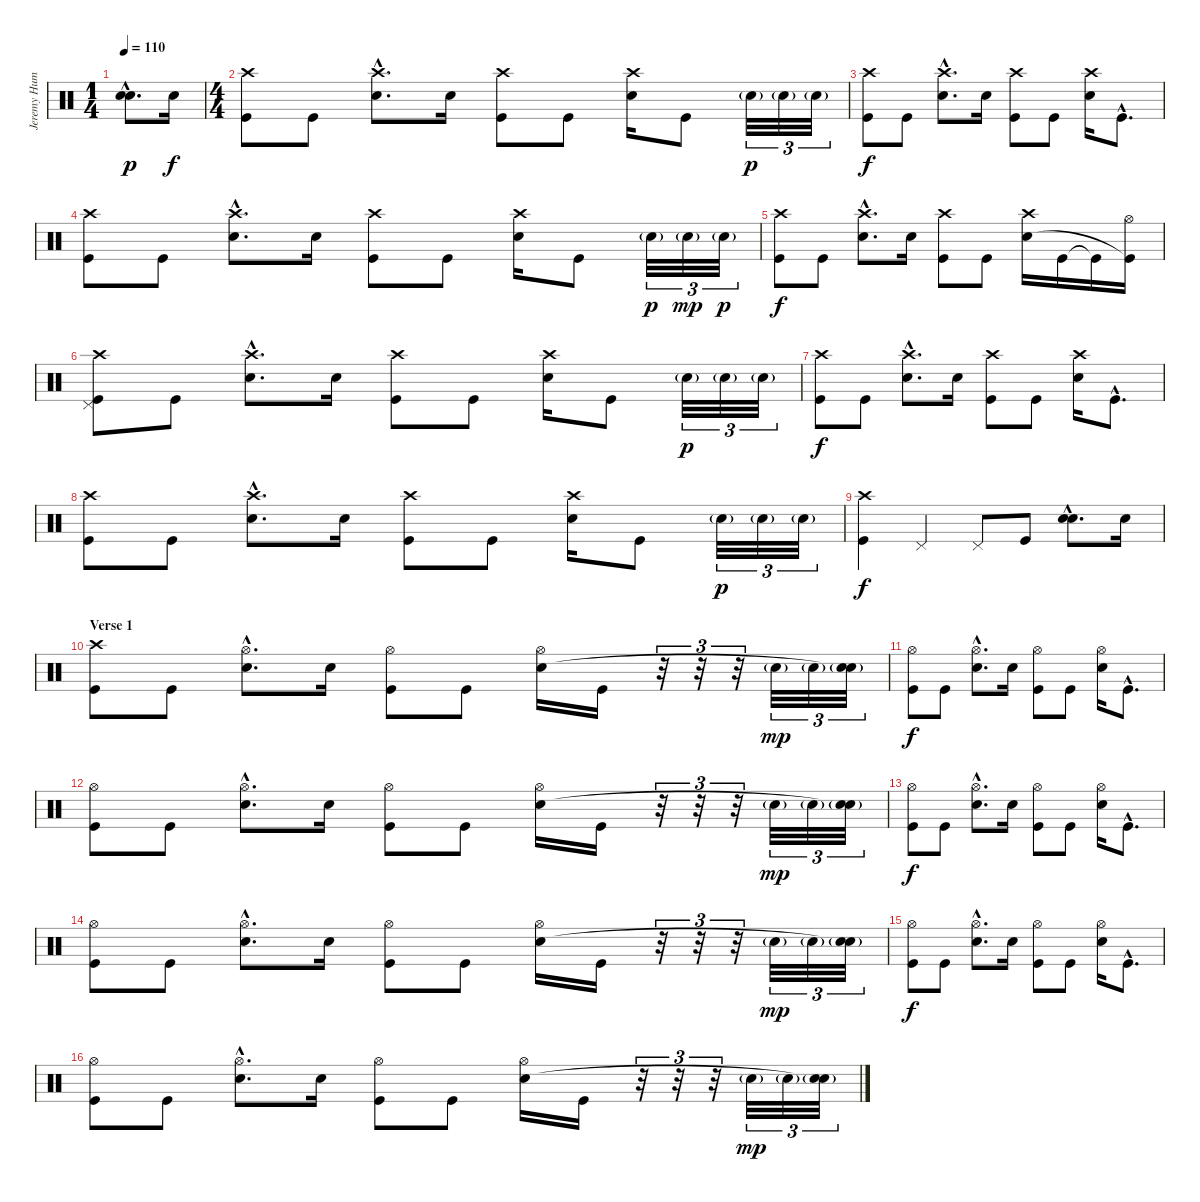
\track ("Jeremy Hummel" "Jeremy Hum") {instrument percussion}
\staff {score}
\articulation defaults
\ts (1 4)
\tempo 110
\clef neutral
\ks c
("Snare (hit) 2"{hac} "Electric Snare (hit)"{hac}).8{d dy p} "Electric Snare (hit)".16{dy f} |
\ts (4 4)
("Crash high (hit)" "Kick (hit)").8 "Kick (hit)".8 ("Crash high (hit)"{hac} "Electric Snare (hit)"{hac}).8{d} "Electric Snare (hit)".16 ("Crash high (hit)" "Kick (hit)").8 "Kick (hit)".8 ("Crash high (hit)" "Electric Snare (hit)").16 "Kick (hit)".8 "Electric Snare (hit)"{g}.32{tu (3 2) dy p} "Electric Snare (hit)"{g}.32{tu (3 2)} "Electric Snare (hit)"{g}.32{tu (3 2)} |
("Crash high (hit)" "Kick (hit)").8{dy f} "Kick (hit)".8 ("Crash high (hit)"{hac} "Electric Snare (hit)"{hac}).8{d} "Electric Snare (hit)".16 ("Crash high (hit)" "Kick (hit)").8 "Kick (hit)".8 ("Crash high (hit)" "Electric Snare (hit)").16 "Kick (hit)"{hac}.8{d} |
("Crash high (hit)" "Kick (hit)").8 "Kick (hit)".8 ("Crash high (hit)"{hac} "Electric Snare (hit)"{hac}).8{d} "Electric Snare (hit)".16 ("Crash high (hit)" "Kick (hit)").8 "Kick (hit)".8 ("Crash high (hit)" "Electric Snare (hit)").16 "Kick (hit)".8 "Electric Snare (hit)"{g}.32{tu (3 2) dy p} "Electric Snare (hit)"{g}.32{tu (3 2) dy mp} "Electric Snare (hit)"{g}.32{tu (3 2) dy p} |
("Crash high (hit)" "Kick (hit)").8{dy f} "Kick (hit)".8 ("Crash high (hit)"{hac} "Electric Snare (hit)"{hac}).8{d} "Electric Snare (hit)".16 ("Crash high (hit)" "Kick (hit)").8 "Kick (hit)".8 ("Crash high (hit)" "Electric Snare (hit)").16 "Kick (hit)".16 "Kick (hit)"{t}.16 ("Hi-Hat (open)" "Kick (hit)"{t}).16 |
("Crash high (hit)" "Pedal Hi-Hat (hit)" "Kick (hit)").8 "Kick (hit)".8 ("Crash high (hit)"{hac} "Electric Snare (hit)"{hac}).8{d} "Electric Snare (hit)".16 ("Crash high (hit)" "Kick (hit)").8 "Kick (hit)".8 ("Crash high (hit)" "Electric Snare (hit)").16 "Kick (hit)".8 "Electric Snare (hit)"{g}.32{tu (3 2) dy p} "Electric Snare (hit)"{g}.32{tu (3 2)} "Electric Snare (hit)"{g}.32{tu (3 2)} |
("Crash high (hit)" "Kick (hit)").8{dy f} "Kick (hit)".8 ("Crash high (hit)"{hac} "Electric Snare (hit)"{hac}).8{d} "Electric Snare (hit)".16 ("Crash high (hit)" "Kick (hit)").8 "Kick (hit)".8 ("Crash high (hit)" "Electric Snare (hit)").16 "Kick (hit)"{hac}.8{d} |
("Crash high (hit)" "Kick (hit)").8 "Kick (hit)".8 ("Crash high (hit)"{hac} "Electric Snare (hit)"{hac}).8{d} "Electric Snare (hit)".16 ("Crash high (hit)" "Kick (hit)").8 "Kick (hit)".8 ("Crash high (hit)" "Electric Snare (hit)").16 "Kick (hit)".8 "Electric Snare (hit)"{g}.32{tu (3 2) dy p} "Electric Snare (hit)"{g}.32{tu (3 2)} "Electric Snare (hit)"{g}.32{tu (3 2)} |
("Crash high (hit)" "Kick (hit)").4{dy f} "Pedal Hi-Hat (hit)".4 "Pedal Hi-Hat (hit)".8 "Kick (hit)".8 ("Snare (hit) 2"{hac} "Electric Snare (hit)"{hac}).8{d} "Electric Snare (hit)".16 |
\section ("" "Verse 1")
("Crash high (hit)" "Kick (hit)").8 "Kick (hit)".8 ("Hi-Hat (open)"{hac} "Electric Snare (hit)"{hac}).8{d} "Electric Snare (hit)".16 ("Hi-Hat (open)" "Kick (hit)").8 "Kick (hit)".8 ("Hi-Hat (open)" "Electric Snare (hit)").16 "Kick (hit)".16 r.32{tu (3 2)} r.32{tu (3 2)} r.32{tu (3 2)} "Electric Snare (hit)"{g}.32{tu (3 2) dy mp} "Electric Snare (hit)"{g}.32{tu (3 2)} ("Electric Snare (hit)"{g} "Snare (hit)"{t}).32{tu (3 2)} |
("Hi-Hat (open)" "Kick (hit)").8{dy f} "Kick (hit)".8 ("Hi-Hat (open)"{hac} "Electric Snare (hit)"{hac}).8{d} "Electric Snare (hit)".16 ("Hi-Hat (open)" "Kick (hit)").8 "Kick (hit)".8 ("Hi-Hat (open)" "Electric Snare (hit)").16 "Kick (hit)"{hac}.8{d} |
("Hi-Hat (open)" "Kick (hit)").8 "Kick (hit)".8 ("Hi-Hat (open)"{hac} "Electric Snare (hit)"{hac}).8{d} "Electric Snare (hit)".16 ("Hi-Hat (open)" "Kick (hit)").8 "Kick (hit)".8 ("Hi-Hat (open)" "Electric Snare (hit)").16 "Kick (hit)".16 r.32{tu (3 2)} r.32{tu (3 2)} r.32{tu (3 2)} "Electric Snare (hit)"{g}.32{tu (3 2) dy mp} "Electric Snare (hit)"{g}.32{tu (3 2)} ("Electric Snare (hit)"{g} "Snare (hit)"{t}).32{tu (3 2)} |
("Hi-Hat (open)" "Kick (hit)").8{dy f} "Kick (hit)".8 ("Hi-Hat (open)"{hac} "Electric Snare (hit)"{hac}).8{d} "Electric Snare (hit)".16 ("Hi-Hat (open)" "Kick (hit)").8 "Kick (hit)".8 ("Hi-Hat (open)" "Electric Snare (hit)").16 "Kick (hit)"{hac}.8{d} |
("Hi-Hat (open)" "Kick (hit)").8 "Kick (hit)".8 ("Hi-Hat (open)"{hac} "Electric Snare (hit)"{hac}).8{d} "Electric Snare (hit)".16 ("Hi-Hat (open)" "Kick (hit)").8 "Kick (hit)".8 ("Hi-Hat (open)" "Electric Snare (hit)").16 "Kick (hit)".16 r.32{tu (3 2)} r.32{tu (3 2)} r.32{tu (3 2)} "Electric Snare (hit)"{g}.32{tu (3 2) dy mp} "Electric Snare (hit)"{g}.32{tu (3 2)} ("Electric Snare (hit)"{g} "Snare (hit)"{t}).32{tu (3 2)} |
("Hi-Hat (open)" "Kick (hit)").8{dy f} "Kick (hit)".8 ("Hi-Hat (open)"{hac} "Electric Snare (hit)"{hac}).8{d} "Electric Snare (hit)".16 ("Hi-Hat (open)" "Kick (hit)").8 "Kick (hit)".8 ("Hi-Hat (open)" "Electric Snare (hit)").16 "Kick (hit)"{hac}.8{d} |
("Hi-Hat (open)" "Kick (hit)").8 "Kick (hit)".8 ("Hi-Hat (open)"{hac} "Electric Snare (hit)"{hac}).8{d} "Electric Snare (hit)".16 ("Hi-Hat (open)" "Kick (hit)").8 "Kick (hit)".8 ("Hi-Hat (open)" "Electric Snare (hit)").16 "Kick (hit)".16 r.32{tu (3 2)} r.32{tu (3 2)} r.32{tu (3 2)} "Electric Snare (hit)"{g}.32{tu (3 2) dy mp} "Electric Snare (hit)"{g}.32{tu (3 2)} ("Electric Snare (hit)"{g} "Snare (hit)"{t}).32{tu (3 2)}
